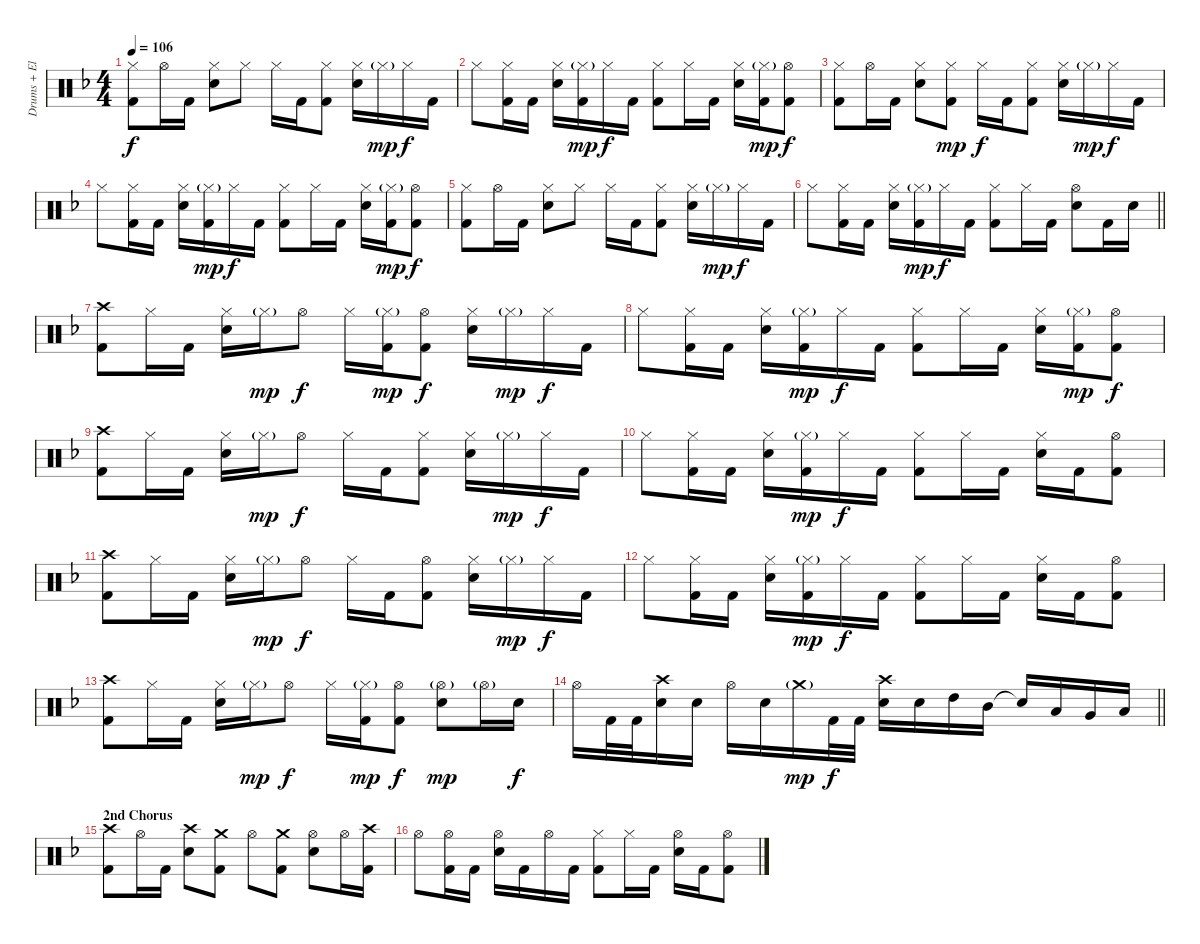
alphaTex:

\track ("Drums + Electronic drum pads" "Drums + El") {instrument percussion}
\staff {score}
\articulation defaults
\ts (4 4)
\tempo 106
\clef neutral
\ks dminor
("Hi-Hat (closed)" "Kick (hit) 2").8{dy f} "Hi-Hat (open)".16 "Kick (hit) 2".16 ("Hi-Hat (closed)" "Snare (hit) 2").8 "Hi-Hat (closed)".8 "Hi-Hat (closed)".16 "Kick (hit) 2".16 ("Hi-Hat (closed)" "Kick (hit) 2").8 ("Hi-Hat (closed)" "Snare (hit) 2").16 "Hi-Hat (closed)"{g}.16{dy mp} "Hi-Hat (closed)".16{dy f} "Kick (hit) 2".16 |
"Hi-Hat (closed)".8 ("Hi-Hat (closed)" "Kick (hit) 2").16 "Kick (hit) 2".16 ("Hi-Hat (closed)" "Snare (hit) 2").16 ("Hi-Hat (closed)"{g} "Kick (hit) 2").16{dy mp} "Hi-Hat (closed)".16{dy f} "Kick (hit) 2".16 ("Hi-Hat (closed)" "Kick (hit) 2").8 "Hi-Hat (closed)".16 "Kick (hit) 2".16 ("Hi-Hat (closed)" "Snare (hit) 2").16 ("Hi-Hat (closed)"{g} "Kick (hit) 2").16{dy mp} ("Hi-Hat (open)" "Kick (hit) 2").8{dy f} |
("Hi-Hat (closed)" "Kick (hit) 2").8 "Hi-Hat (open)".16 "Kick (hit) 2".16 ("Hi-Hat (closed)" "Snare (hit) 2").8 ("Hi-Hat (closed)" "Kick (hit) 2").8{dy mp} "Hi-Hat (closed)".16{dy f} "Kick (hit) 2".16 ("Hi-Hat (closed)" "Kick (hit) 2").8 ("Hi-Hat (closed)" "Snare (hit) 2").16 "Hi-Hat (closed)"{g}.16{dy mp} "Hi-Hat (closed)".16{dy f} "Kick (hit) 2".16 |
"Hi-Hat (closed)".8 ("Hi-Hat (closed)" "Kick (hit) 2").16 "Kick (hit) 2".16 ("Hi-Hat (closed)" "Snare (hit) 2").16 ("Hi-Hat (closed)"{g} "Kick (hit) 2").16{dy mp} "Hi-Hat (closed)".16{dy f} "Kick (hit) 2".16 ("Hi-Hat (closed)" "Kick (hit) 2").8 "Hi-Hat (closed)".16 "Kick (hit) 2".16 ("Hi-Hat (closed)" "Snare (hit) 2").16 ("Hi-Hat (closed)"{g} "Kick (hit) 2").16{dy mp} ("Hi-Hat (open)" "Kick (hit) 2").8{dy f} |
("Hi-Hat (closed)" "Kick (hit) 2").8 "Hi-Hat (open)".16 "Kick (hit) 2".16 ("Hi-Hat (closed)" "Snare (hit) 2").8 "Hi-Hat (closed)".8 "Hi-Hat (closed)".16 "Kick (hit) 2".16 ("Hi-Hat (closed)" "Kick (hit) 2").8 ("Hi-Hat (closed)" "Snare (hit) 2").16 "Hi-Hat (closed)"{g}.16{dy mp} "Hi-Hat (closed)".16{dy f} "Kick (hit) 2".16 |
\barLineRight lightlight "Hi-Hat (closed)".8
("Hi-Hat (closed)" "Kick (hit) 2").16 "Kick (hit) 2".16 ("Hi-Hat (closed)" "Snare (hit) 2").16 ("Hi-Hat (closed)"{g} "Kick (hit) 2").16{dy mp} "Hi-Hat (closed)".16{dy f} "Kick (hit) 2".16 ("Hi-Hat (closed)" "Kick (hit) 2").8 "Hi-Hat (closed)".16 "Kick (hit) 2".16 ("Hi-Hat (open)" "Snare (hit) 2").8 "Kick (hit) 2".16 "Snare (hit) 2".16 |
("Crash high (hit)" "Kick (hit) 2").8 "Hi-Hat (closed)".16 "Kick (hit) 2".16 ("Hi-Hat (closed)" "Snare (hit) 2").16 "Hi-Hat (closed)"{g}.16{dy mp} "Hi-Hat (open)".8{dy f} "Hi-Hat (closed)".16 ("Hi-Hat (closed)"{g} "Kick (hit) 2").16{dy mp} ("Hi-Hat (open)" "Kick (hit) 2").8{dy f} ("Hi-Hat (closed)" "Snare (hit) 2").16 "Hi-Hat (closed)"{g}.16{dy mp} "Hi-Hat (closed)".16{dy f} "Kick (hit) 2".16 |
"Hi-Hat (closed)".8 ("Hi-Hat (closed)" "Kick (hit) 2").16 "Kick (hit) 2".16 ("Hi-Hat (closed)" "Snare (hit) 2").16 ("Hi-Hat (closed)"{g} "Kick (hit) 2").16{dy mp} "Hi-Hat (closed)".16{dy f} "Kick (hit) 2".16 ("Hi-Hat (closed)" "Kick (hit) 2").8 "Hi-Hat (closed)".16 "Kick (hit) 2".16 ("Hi-Hat (closed)" "Snare (hit) 2").16 ("Hi-Hat (closed)"{g} "Kick (hit) 2").16{dy mp} ("Hi-Hat (open)" "Kick (hit) 2").8{dy f} |
("Crash high (hit)" "Kick (hit) 2").8 "Hi-Hat (closed)".16 "Kick (hit) 2".16 ("Hi-Hat (closed)" "Snare (hit) 2").16 "Hi-Hat (closed)"{g}.16{dy mp} "Hi-Hat (open)".8{dy f} "Hi-Hat (closed)".16 "Kick (hit) 2".16 ("Hi-Hat (closed)" "Kick (hit) 2").8 ("Hi-Hat (closed)" "Snare (hit) 2").16 "Hi-Hat (closed)"{g}.16{dy mp} "Hi-Hat (closed)".16{dy f} "Kick (hit) 2".16 |
"Hi-Hat (closed)".8 ("Hi-Hat (closed)" "Kick (hit) 2").16 "Kick (hit) 2".16 ("Hi-Hat (closed)" "Snare (hit) 2").16 ("Hi-Hat (closed)"{g} "Kick (hit) 2").16{dy mp} "Hi-Hat (closed)".16{dy f} "Kick (hit) 2".16 ("Hi-Hat (closed)" "Kick (hit) 2").8 "Hi-Hat (closed)".16 "Kick (hit) 2".16 ("Hi-Hat (closed)" "Snare (hit) 2").16 "Kick (hit) 2".16 ("Hi-Hat (open)" "Kick (hit) 2").8 |
("Crash high (hit)" "Kick (hit) 2").8 "Hi-Hat (closed)".16 "Kick (hit) 2".16 ("Hi-Hat (closed)" "Snare (hit) 2").16 "Hi-Hat (closed)"{g}.16{dy mp} "Hi-Hat (open)".8{dy f} "Hi-Hat (closed)".16 "Kick (hit) 2".16 ("Hi-Hat (open)" "Kick (hit) 2").8 ("Hi-Hat (closed)" "Snare (hit) 2").16 "Hi-Hat (closed)"{g}.16{dy mp} "Hi-Hat (closed)".16{dy f} "Kick (hit) 2".16 |
"Hi-Hat (closed)".8 ("Hi-Hat (closed)" "Kick (hit) 2").16 "Kick (hit) 2".16 ("Hi-Hat (closed)" "Snare (hit) 2").16 ("Hi-Hat (closed)"{g} "Kick (hit) 2").16{dy mp} "Hi-Hat (closed)".16{dy f} "Kick (hit) 2".16 ("Hi-Hat (closed)" "Kick (hit) 2").8 "Hi-Hat (closed)".16 "Kick (hit) 2".16 ("Hi-Hat (closed)" "Snare (hit) 2").16 "Kick (hit) 2".16 ("Hi-Hat (open)" "Kick (hit) 2").8 |
("Crash high (hit)" "Kick (hit) 2").8 "Hi-Hat (closed)".16 "Kick (hit) 2".16 ("Hi-Hat (closed)" "Snare (hit) 2").16 "Hi-Hat (closed)"{g}.16{dy mp} "Hi-Hat (open)".8{dy f} "Hi-Hat (closed)".16 ("Hi-Hat (closed)"{g} "Kick (hit) 2").16{dy mp} ("Hi-Hat (open)" "Kick (hit) 2").8{dy f} ("Hi-Hat (open)"{g} "Snare (hit) 2").8{dy mp} "Hi-Hat (open)"{g}.16 "Snare (hit) 2".16{dy f} |
\barLineRight lightlight "Hi-Hat (open)".16 "Kick (hit) 2".32 "Kick (hit) 2".32
("Crash high (hit)" "Snare (hit) 2").16 "Snare (hit) 2".16 "Hi-Hat (open)".16 "Snare (hit) 2".16 "Crash medium (hit)"{g}.16{dy mp} "Kick (hit) 2".32{dy f} "Kick (hit) 2".32 ("Crash high (hit)" "Snare (hit) 2").16 "Snare (hit) 2".16 "High Tom (hit)".16 "Mid Tom (hit)".16 "Snare (hit)"{t}.16 "Low Tom (hit)".16 "Very Low Tom (hit)".16 "Low Floor Tom (hit)".16 |
\section ("" "2nd Chorus")
("Crash high (hit)" "Kick (hit) 2").8 "Hi-Hat (open)".16 "Kick (hit) 2".16 ("Crash high (hit)" "Snare (hit) 2").8 ("Crash medium (hit)" "Kick (hit) 2").8 "Hi-Hat (open)".8 ("Crash medium (hit)" "Kick (hit) 2").8 ("Hi-Hat (open)" "Snare (hit) 2").8 "Hi-Hat (open)".16 ("Crash high (hit)" "Kick (hit) 2").16 |
"Hi-Hat (open)".8 ("Hi-Hat (open)" "Kick (hit) 2").16 "Kick (hit) 2".16 ("Hi-Hat (open)" "Snare (hit) 2").16 "Kick (hit) 2".16 "Hi-Hat (open)".16 "Kick (hit) 2".16 ("Hi-Hat (closed)" "Kick (hit) 2").8 "Hi-Hat (closed)".16 "Kick (hit) 2".16 ("Hi-Hat (open)" "Snare (hit) 2").16 "Kick (hit) 2".16 ("Hi-Hat (open)" "Kick (hit) 2").8
